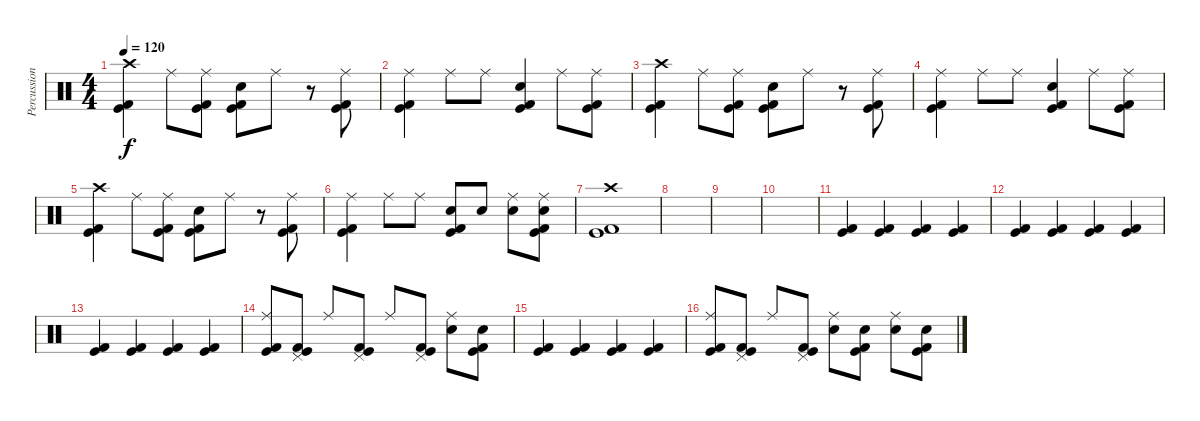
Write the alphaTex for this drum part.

\track ("Percussion" "Percussion") {instrument percussion}
\staff {score}
\articulation defaults
\ts (4 4)
\tempo 120
\clef neutral
\ks c
("Crash high (hit)" "Kick (hit)" "Kick (hit) 2").4{dy f} "Ride (middle)".8 ("Ride (middle)" "Kick (hit)" "Kick (hit) 2").8 ("Electric Snare (hit)" "Kick (hit)" "Kick (hit) 2").8 "Ride (middle)".8 r.8 ("Ride (middle)" "Kick (hit)" "Kick (hit) 2").8 |
("Ride (middle)" "Kick (hit)" "Kick (hit) 2").4 "Ride (middle)".8 "Ride (middle)".8 ("Electric Snare (hit)" "Kick (hit)" "Kick (hit) 2").4 "Ride (middle)".8 ("Ride (middle)" "Kick (hit)" "Kick (hit) 2").8 |
("Crash high (hit)" "Kick (hit)" "Kick (hit) 2").4 "Ride (middle)".8 ("Ride (middle)" "Kick (hit)" "Kick (hit) 2").8 ("Electric Snare (hit)" "Kick (hit)" "Kick (hit) 2").8 "Ride (middle)".8 r.8 ("Ride (middle)" "Kick (hit)" "Kick (hit) 2").8 |
("Ride (middle)" "Kick (hit)" "Kick (hit) 2").4 "Ride (middle)".8 "Ride (middle)".8 ("Electric Snare (hit)" "Kick (hit)" "Kick (hit) 2").4 "Ride (middle)".8 ("Ride (middle)" "Kick (hit)" "Kick (hit) 2").8 |
("Crash high (hit)" "Kick (hit)" "Kick (hit) 2").4 "Ride (middle)".8 ("Ride (middle)" "Kick (hit)" "Kick (hit) 2").8 ("Electric Snare (hit)" "Kick (hit)" "Kick (hit) 2").8 "Ride (middle)".8 r.8 ("Ride (middle)" "Kick (hit)" "Kick (hit) 2").8 |
("Ride (middle)" "Kick (hit)" "Kick (hit) 2").4 "Ride (middle)".8 "Ride (middle)".8 ("Electric Snare (hit)" "Kick (hit)" "Kick (hit) 2").8 "Electric Snare (hit)".8 ("Electric Snare (hit)" "Ride (middle)").8 ("Electric Snare (hit)" "Ride (middle)" "Kick (hit)" "Kick (hit) 2").8 |
("Crash high (hit)" "Kick (hit)" "Kick (hit) 2").1 |
|
|
|
("Kick (hit)" "Kick (hit) 2").4 ("Kick (hit)" "Kick (hit) 2").4 ("Kick (hit)" "Kick (hit) 2").4 ("Kick (hit)" "Kick (hit) 2").4 |
("Kick (hit)" "Kick (hit) 2").4 ("Kick (hit)" "Kick (hit) 2").4 ("Kick (hit)" "Kick (hit) 2").4 ("Kick (hit)" "Kick (hit) 2").4 |
("Kick (hit)" "Kick (hit) 2").4 ("Kick (hit)" "Kick (hit) 2").4 ("Kick (hit)" "Kick (hit) 2").4 ("Kick (hit)" "Kick (hit) 2").4 |
("Ride (middle)" "Kick (hit)" "Kick (hit) 2").8 ("Pedal Hi-Hat (hit)" "Kick (hit)" "Kick (hit) 2").8 "Ride (middle)".8 ("Pedal Hi-Hat (hit)" "Kick (hit)" "Kick (hit) 2").8 "Ride (middle)".8 ("Pedal Hi-Hat (hit)" "Kick (hit)" "Kick (hit) 2").8 ("Electric Snare (hit)" "Ride (middle)").8 ("Electric Snare (hit)" "Kick (hit)" "Kick (hit) 2").8 |
("Kick (hit)" "Kick (hit) 2").4 ("Kick (hit)" "Kick (hit) 2").4 ("Kick (hit)" "Kick (hit) 2").4 ("Kick (hit)" "Kick (hit) 2").4 |
("Ride (middle)" "Kick (hit)" "Kick (hit) 2").8 ("Pedal Hi-Hat (hit)" "Kick (hit)" "Kick (hit) 2").8 "Ride (middle)".8 ("Pedal Hi-Hat (hit)" "Kick (hit)" "Kick (hit) 2").8 ("Electric Snare (hit)" "Ride (middle)").8 ("Electric Snare (hit)" "Kick (hit)" "Kick (hit) 2").8 ("Electric Snare (hit)" "Ride (middle)").8 ("Electric Snare (hit)" "Kick (hit)" "Kick (hit) 2").8
